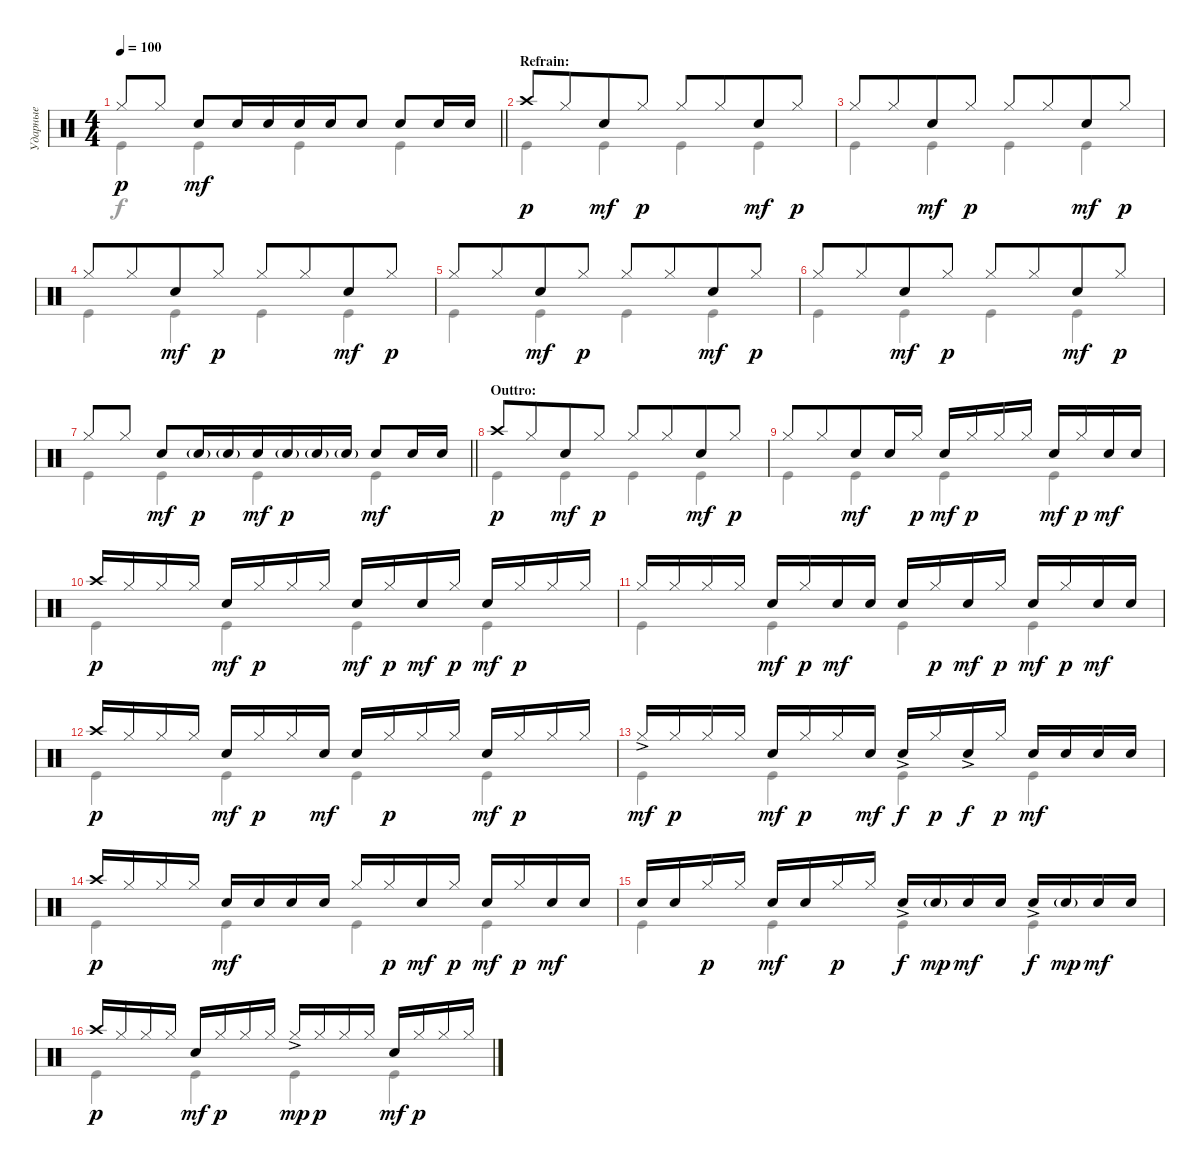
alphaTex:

\track ("Ударные" "Ударные") {instrument percussion}
\staff {score}
\articulation defaults
\voice
\ts (4 4)
\tempo 100
\clef neutral
\barLineRight lightlight
\ks c "Hi-Hat (closed)".8{dy p} "Hi-Hat (closed)".8 "Snare (hit) 2".8{dy mf} "Snare (hit) 2".16 "Snare (hit) 2".16{beam merge} "Snare (hit) 2".16 "Snare (hit) 2".16 "Snare (hit) 2".8 "Snare (hit) 2".8 "Snare (hit) 2".16 "Snare (hit) 2".16
|
\section ("" "Refrain:")
"Crash high (hit)".8{dy p} "Hi-Hat (closed)".8{beam merge} "Snare (hit) 2".8{dy mf} "Hi-Hat (closed)".8{dy p} "Hi-Hat (closed)".8 "Hi-Hat (closed)".8{beam merge} "Snare (hit) 2".8{dy mf} "Hi-Hat (closed)".8{dy p} |
"Hi-Hat (closed)".8 "Hi-Hat (closed)".8{beam merge} "Snare (hit) 2".8{dy mf} "Hi-Hat (closed)".8{dy p} "Hi-Hat (closed)".8 "Hi-Hat (closed)".8{beam merge} "Snare (hit) 2".8{dy mf} "Hi-Hat (closed)".8{dy p} |
"Hi-Hat (closed)".8 "Hi-Hat (closed)".8{beam merge} "Snare (hit) 2".8{dy mf} "Hi-Hat (closed)".8{dy p} "Hi-Hat (closed)".8 "Hi-Hat (closed)".8{beam merge} "Snare (hit) 2".8{dy mf} "Hi-Hat (closed)".8{dy p} |
"Hi-Hat (closed)".8 "Hi-Hat (closed)".8{beam merge} "Snare (hit) 2".8{dy mf} "Hi-Hat (closed)".8{dy p} "Hi-Hat (closed)".8 "Hi-Hat (closed)".8{beam merge} "Snare (hit) 2".8{dy mf} "Hi-Hat (closed)".8{dy p} |
"Hi-Hat (closed)".8 "Hi-Hat (closed)".8{beam merge} "Snare (hit) 2".8{dy mf} "Hi-Hat (closed)".8{dy p} "Hi-Hat (closed)".8 "Hi-Hat (closed)".8{beam merge} "Snare (hit) 2".8{dy mf} "Hi-Hat (closed)".8{dy p} |
\barLineRight lightlight "Hi-Hat (closed)".8 "Hi-Hat (closed)".8 "Snare (hit) 2".8{dy mf} "Snare (hit) 2"{g}.16{dy p} "Snare (hit) 2"{g}.16{beam merge} "Snare (hit) 2".16{dy mf} "Snare (hit) 2"{g}.16{dy p} "Snare (hit) 2"{g}.16 "Snare (hit) 2"{g}.16 "Snare (hit) 2".8{dy mf} "Snare (hit) 2".16 "Snare (hit) 2".16
|
\section ("" "Outtro:")
"Crash high (hit)".8{dy p} "Hi-Hat (closed)".8{beam merge} "Snare (hit) 2".8{dy mf} "Hi-Hat (closed)".8{dy p} "Hi-Hat (closed)".8 "Hi-Hat (closed)".8{beam merge} "Snare (hit) 2".8{dy mf} "Hi-Hat (closed)".8{dy p} |
"Hi-Hat (closed)".8 "Hi-Hat (closed)".8{beam merge} "Snare (hit) 2".8{dy mf} "Snare (hit) 2".16 "Hi-Hat (closed)".16{dy p} "Snare (hit) 2".16{dy mf beam merge} "Hi-Hat (closed)".16{dy p beam merge} "Hi-Hat (closed)".16 "Hi-Hat (closed)".16 "Snare (hit) 2".16{dy mf} "Hi-Hat (closed)".16{dy p} "Snare (hit) 2".16{dy mf} "Snare (hit) 2".16 |
"Crash high (hit)".16{dy p} "Hi-Hat (closed)".16 "Hi-Hat (closed)".16 "Hi-Hat (closed)".16 "Snare (hit) 2".16{dy mf} "Hi-Hat (closed)".16{dy p} "Hi-Hat (closed)".16 "Hi-Hat (closed)".16 "Snare (hit) 2".16{dy mf} "Hi-Hat (closed)".16{dy p} "Snare (hit) 2".16{dy mf} "Hi-Hat (closed)".16{dy p} "Snare (hit) 2".16{dy mf} "Hi-Hat (closed)".16{dy p} "Hi-Hat (closed)".16 "Hi-Hat (closed)".16 |
"Hi-Hat (closed)".16 "Hi-Hat (closed)".16 "Hi-Hat (closed)".16 "Hi-Hat (closed)".16 "Snare (hit) 2".16{dy mf} "Hi-Hat (closed)".16{dy p} "Snare (hit) 2".16{dy mf} "Snare (hit) 2".16 "Snare (hit) 2".16 "Hi-Hat (closed)".16{dy p} "Snare (hit) 2".16{dy mf} "Hi-Hat (closed)".16{dy p} "Snare (hit) 2".16{dy mf} "Hi-Hat (closed)".16{dy p} "Snare (hit) 2".16{dy mf} "Snare (hit) 2".16 |
"Crash high (hit)".16{dy p} "Hi-Hat (closed)".16 "Hi-Hat (closed)".16 "Hi-Hat (closed)".16 "Snare (hit) 2".16{dy mf} "Hi-Hat (closed)".16{dy p} "Hi-Hat (closed)".16 "Snare (hit) 2".16{dy mf} "Snare (hit) 2".16 "Hi-Hat (closed)".16{dy p} "Hi-Hat (closed)".16 "Hi-Hat (closed)".16 "Snare (hit) 2".16{dy mf} "Hi-Hat (closed)".16{dy p} "Hi-Hat (closed)".16 "Hi-Hat (closed)".16 |
"Hi-Hat (closed)"{ac}.16{dy mf} "Hi-Hat (closed)".16{dy p} "Hi-Hat (closed)".16 "Hi-Hat (closed)".16 "Snare (hit) 2".16{dy mf} "Hi-Hat (closed)".16{dy p} "Hi-Hat (closed)".16 "Snare (hit) 2".16{dy mf} "Snare (hit) 2"{ac}.16{dy f} "Hi-Hat (closed)".16{dy p} "Snare (hit) 2"{ac}.16{dy f} "Hi-Hat (closed)".16{dy p} "Snare (hit) 2".16{dy mf} "Snare (hit) 2".16 "Snare (hit) 2".16 "Snare (hit) 2".16 |
"Crash high (hit)".16{dy p} "Hi-Hat (closed)".16 "Hi-Hat (closed)".16 "Hi-Hat (closed)".16 "Snare (hit) 2".16{dy mf} "Snare (hit) 2".16 "Snare (hit) 2".16 "Snare (hit) 2".16 "Hi-Hat (closed)".16 "Hi-Hat (closed)".16{dy p} "Snare (hit) 2".16{dy mf} "Hi-Hat (closed)".16{dy p} "Snare (hit) 2".16{dy mf} "Hi-Hat (closed)".16{dy p} "Snare (hit) 2".16{dy mf} "Snare (hit) 2".16 |
"Snare (hit) 2".16 "Snare (hit) 2".16 "Hi-Hat (closed)".16{dy p} "Hi-Hat (closed)".16 "Snare (hit) 2".16{dy mf} "Snare (hit) 2".16 "Hi-Hat (closed)".16{dy p} "Hi-Hat (closed)".16 "Snare (hit) 2"{ac}.16{dy f} "Snare (hit) 2"{g}.16{dy mp} "Snare (hit) 2".16{dy mf} "Snare (hit) 2".16 "Snare (hit) 2"{ac}.16{dy f} "Snare (hit) 2"{g}.16{dy mp} "Snare (hit) 2".16{dy mf} "Snare (hit) 2".16 |
"Crash high (hit)".16{dy p} "Hi-Hat (closed)".16 "Hi-Hat (closed)".16 "Hi-Hat (closed)".16 "Snare (hit) 2".16{dy mf} "Hi-Hat (closed)".16{dy p} "Hi-Hat (closed)".16 "Hi-Hat (closed)".16 "Hi-Hat (closed)"{ac}.16{dy mp} "Hi-Hat (closed)".16{dy p} "Hi-Hat (closed)".16 "Hi-Hat (closed)".16 "Snare (hit) 2".16{dy mf} "Hi-Hat (closed)".16{dy p} "Hi-Hat (closed)".16 "Hi-Hat (closed)".16
\voice
\clef neutral
\ottava regular
\simile none
\barLineRight lightlight
\ks c "Kick (hit)".4{dy f} "Kick (hit)".4 "Kick (hit)".4 "Kick (hit)".4
|
"Kick (hit)".4 "Kick (hit)".4 "Kick (hit)".4 "Kick (hit)".4 |
"Kick (hit)".4 "Kick (hit)".4 "Kick (hit)".4 "Kick (hit)".4 |
"Kick (hit)".4 "Kick (hit)".4 "Kick (hit)".4 "Kick (hit)".4 |
"Kick (hit)".4 "Kick (hit)".4 "Kick (hit)".4 "Kick (hit)".4 |
"Kick (hit)".4 "Kick (hit)".4 "Kick (hit)".4 "Kick (hit)".4 |
\barLineRight lightlight "Kick (hit)".4 "Kick (hit)".4 "Kick (hit)".4 "Kick (hit)".4
|
"Kick (hit)".4 "Kick (hit)".4 "Kick (hit)".4 "Kick (hit)".4 |
"Kick (hit)".4 "Kick (hit)".4 "Kick (hit)".4 "Kick (hit)".4 |
"Kick (hit)".4 "Kick (hit)".4 "Kick (hit)".4 "Kick (hit)".4 |
"Kick (hit)".4 "Kick (hit)".4 "Kick (hit)".4 "Kick (hit)".4 |
"Kick (hit)".4 "Kick (hit)".4 "Kick (hit)".4 "Kick (hit)".4 |
"Kick (hit)".4 "Kick (hit)".4 "Kick (hit)".4 "Kick (hit)".4 |
"Kick (hit)".4 "Kick (hit)".4 "Kick (hit)".4 "Kick (hit)".4 |
"Kick (hit)".4 "Kick (hit)".4 "Kick (hit)".4 "Kick (hit)".4 |
"Kick (hit)".4 "Kick (hit)".4 "Kick (hit)".4 "Kick (hit)".4
